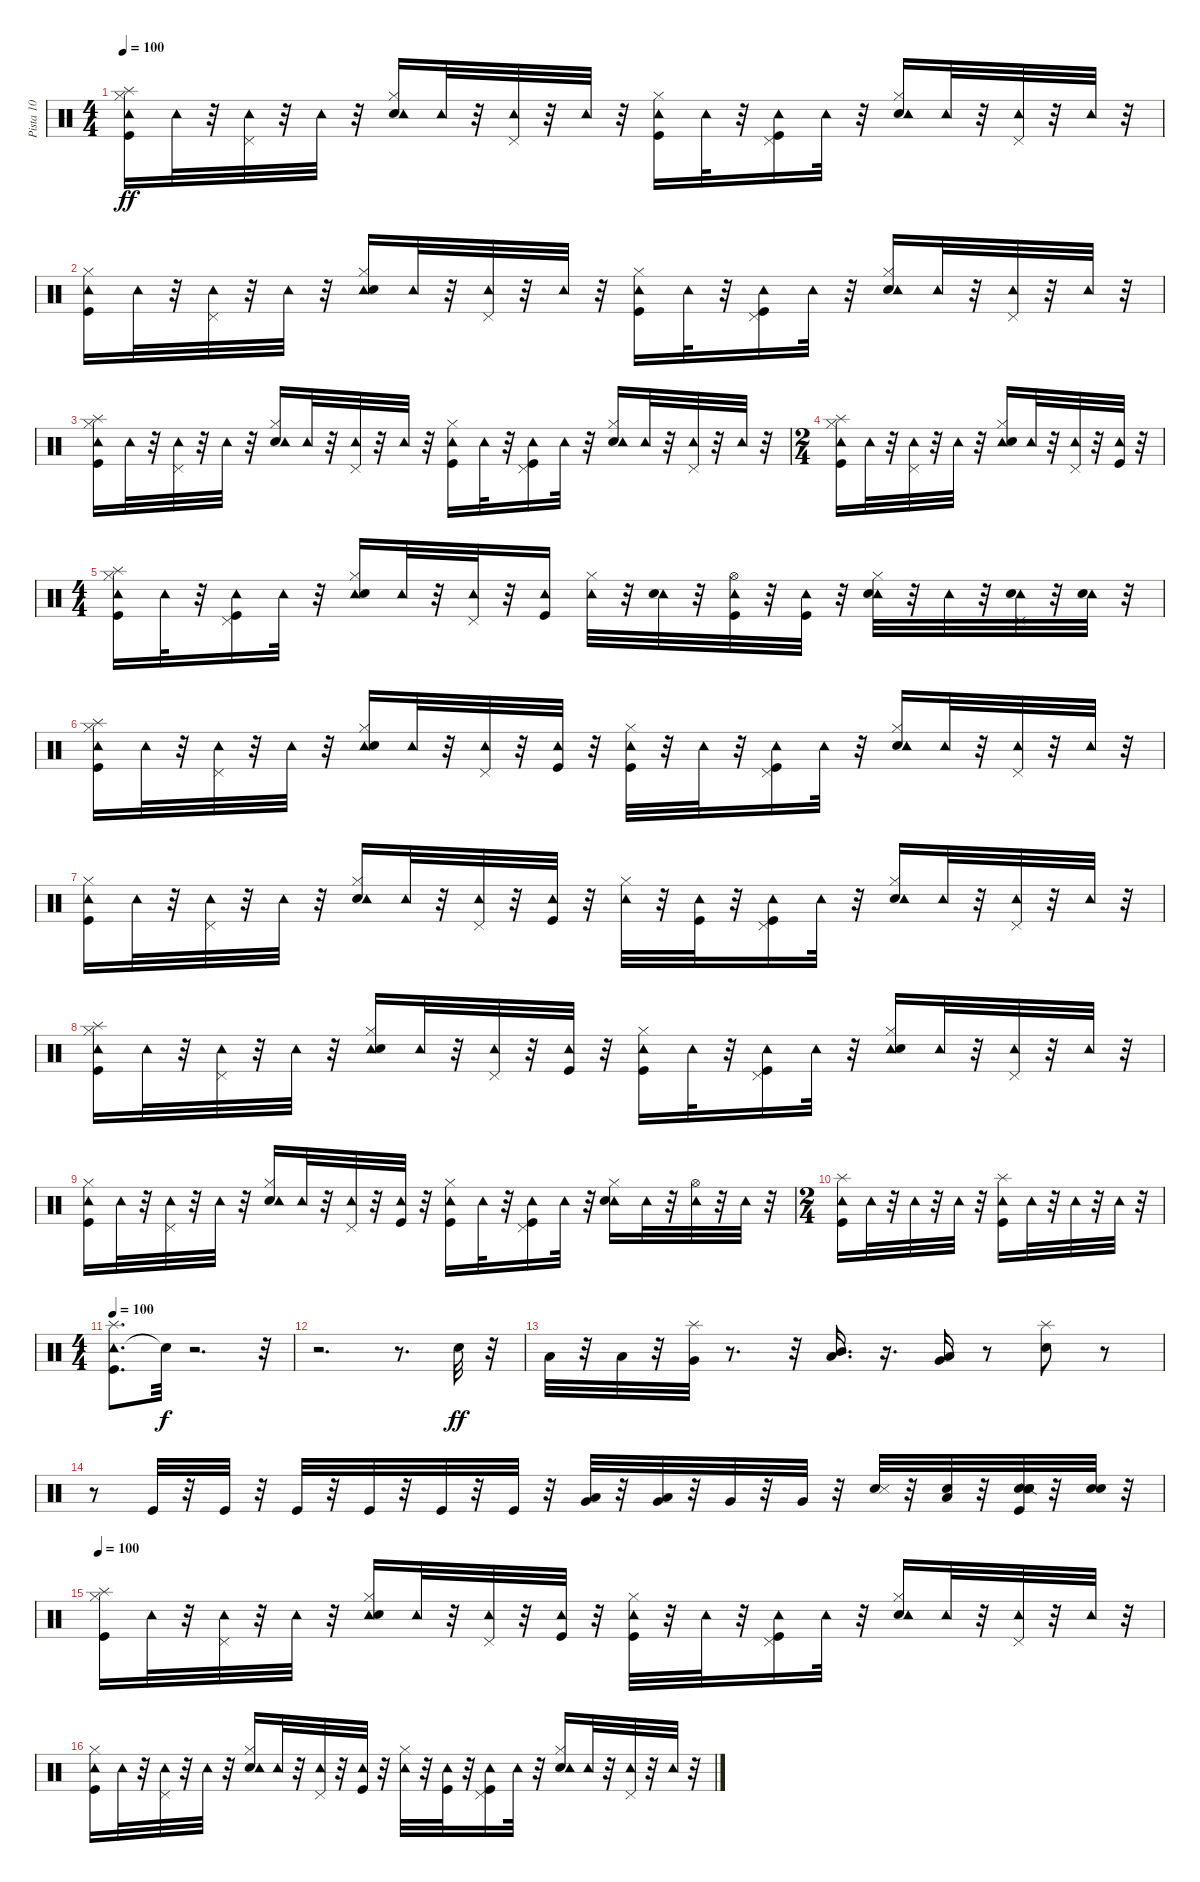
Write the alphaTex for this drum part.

\track ("Pista 10" "Pista 10") {instrument percussion}
\staff {score}
\articulation defaults
\ts (4 4)
\tempo 100
\clef neutral
\ks c
("Tambourine (hit)" "Kick (hit)" "Splash (hit)" "Hi-Hat (closed)").16{dy ff} "Tambourine (hit)".32 r.32 ("Tambourine (hit)" "Pedal Hi-Hat (hit)").32 r.32 "Tambourine (hit)".32 r.32 ("Snare (hit) 2" "Hi-Hat (closed)" "Tambourine (hit)").16 "Tambourine (hit)".32 r.32 ("Tambourine (hit)" "Pedal Hi-Hat (hit)").32 r.32 "Tambourine (hit)".32 r.32 ("Kick (hit)" "Hi-Hat (closed)" "Tambourine (hit)").16 "Tambourine (hit)".32 r.32 ("Tambourine (hit)" "Kick (hit)" "Pedal Hi-Hat (hit)").16 "Tambourine (hit)".32 r.32 ("Snare (hit) 2" "Hi-Hat (closed)" "Tambourine (hit)").16 "Tambourine (hit)".32 r.32 ("Pedal Hi-Hat (hit)" "Tambourine (hit)").32 r.32 "Tambourine (hit)".32 r.32 |
("Kick (hit)" "Hi-Hat (closed)" "Tambourine (hit)").16 "Tambourine (hit)".32 r.32 ("Tambourine (hit)" "Pedal Hi-Hat (hit)").32 r.32 "Tambourine (hit)".32 r.32 ("Tambourine (hit)" "Snare (hit) 2" "Hi-Hat (closed)").16 "Tambourine (hit)".32 r.32 ("Tambourine (hit)" "Pedal Hi-Hat (hit)").32 r.32 "Tambourine (hit)".32 r.32 ("Tambourine (hit)" "Kick (hit)" "Hi-Hat (closed)").16 "Tambourine (hit)".32 r.32 ("Tambourine (hit)" "Kick (hit)" "Pedal Hi-Hat (hit)").16 "Tambourine (hit)".32 r.32 ("Snare (hit) 2" "Hi-Hat (closed)" "Tambourine (hit)").16 "Tambourine (hit)".32 r.32 ("Pedal Hi-Hat (hit)" "Tambourine (hit)").32 r.32 "Tambourine (hit)".32 r.32 |
("Kick (hit)" "Hi-Hat (closed)" "Splash (hit)" "Tambourine (hit)").16 "Tambourine (hit)".32 r.32 ("Pedal Hi-Hat (hit)" "Tambourine (hit)").32 r.32 "Tambourine (hit)".32 r.32 ("Snare (hit) 2" "Hi-Hat (closed)" "Tambourine (hit)").16 "Tambourine (hit)".32 r.32 ("Tambourine (hit)" "Pedal Hi-Hat (hit)").32 r.32 "Tambourine (hit)".32 r.32 ("Tambourine (hit)" "Kick (hit)" "Hi-Hat (closed)").16 "Tambourine (hit)".32 r.32 ("Tambourine (hit)" "Kick (hit)" "Pedal Hi-Hat (hit)").16 "Tambourine (hit)".32 r.32 ("Snare (hit) 2" "Hi-Hat (closed)" "Tambourine (hit)").16 "Tambourine (hit)".32 r.32 ("Pedal Hi-Hat (hit)" "Tambourine (hit)").32 r.32 "Tambourine (hit)".32 r.32 |
\ts (2 4)
("Tambourine (hit)" "Kick (hit)" "Splash (hit)" "Hi-Hat (closed)").16 "Tambourine (hit)".32 r.32 ("Tambourine (hit)" "Pedal Hi-Hat (hit)").32 r.32 "Tambourine (hit)".32 r.32 ("Tambourine (hit)" "Snare (hit) 2" "Hi-Hat (closed)").16 "Tambourine (hit)".32 r.32 ("Tambourine (hit)" "Pedal Hi-Hat (hit)").32 r.32 ("Tambourine (hit)" "Kick (hit)").32 r.32 |
\ts (4 4)
("Tambourine (hit)" "Kick (hit)" "Splash (hit)" "Hi-Hat (closed)").16 "Tambourine (hit)".32 r.32 ("Tambourine (hit)" "Kick (hit)" "Pedal Hi-Hat (hit)").16 "Tambourine (hit)".32 r.32 ("Tambourine (hit)" "Snare (hit) 2" "Hi-Hat (closed)").16 "Tambourine (hit)".32 r.32 ("Tambourine (hit)" "Pedal Hi-Hat (hit)").32 r.32 ("Tambourine (hit)" "Kick (hit)").16 ("Tambourine (hit)" "Hi-Hat (closed)").32 r.32 ("Tambourine (hit)" "Snare (hit) 2").32 r.32 ("Tambourine (hit)" "Kick (hit)" "Hi-Hat (open)").32 r.32 ("Tambourine (hit)" "Kick (hit)").32 r.32 ("Tambourine (hit)" "Snare (hit) 2" "Hi-Hat (closed)").32 r.32 "Tambourine (hit)".32 r.32 ("Tambourine (hit)" "Snare (hit) 2" "Pedal Hi-Hat (hit)").32 r.32 ("Tambourine (hit)" "Snare (hit) 2").32 r.32 |
("Tambourine (hit)" "Kick (hit)" "Hi-Hat (closed)" "Splash (hit)").16 "Tambourine (hit)".32 r.32 ("Tambourine (hit)" "Pedal Hi-Hat (hit)").32 r.32 "Tambourine (hit)".32 r.32 ("Tambourine (hit)" "Snare (hit) 2" "Hi-Hat (closed)").16 "Tambourine (hit)".32 r.32 ("Tambourine (hit)" "Pedal Hi-Hat (hit)").32 r.32 ("Kick (hit)" "Tambourine (hit)").32 r.32 ("Tambourine (hit)" "Kick (hit)" "Hi-Hat (closed)").32 r.32 "Tambourine (hit)".32 r.32 ("Kick (hit)" "Pedal Hi-Hat (hit)" "Tambourine (hit)").16 "Tambourine (hit)".32 r.32 ("Snare (hit) 2" "Hi-Hat (closed)" "Tambourine (hit)").16 "Tambourine (hit)".32 r.32 ("Pedal Hi-Hat (hit)" "Tambourine (hit)").32 r.32 "Tambourine (hit)".32 r.32 |
("Kick (hit)" "Hi-Hat (closed)" "Tambourine (hit)").16 "Tambourine (hit)".32 r.32 ("Tambourine (hit)" "Pedal Hi-Hat (hit)").32 r.32 "Tambourine (hit)".32 r.32 ("Snare (hit) 2" "Hi-Hat (closed)" "Tambourine (hit)").16 "Tambourine (hit)".32 r.32 ("Pedal Hi-Hat (hit)" "Tambourine (hit)").32 r.32 ("Kick (hit)" "Tambourine (hit)").32 r.32 ("Hi-Hat (closed)" "Tambourine (hit)").32 r.32 ("Kick (hit)" "Tambourine (hit)").32 r.32 ("Kick (hit)" "Pedal Hi-Hat (hit)" "Tambourine (hit)").16 "Tambourine (hit)".32 r.32 ("Snare (hit) 2" "Hi-Hat (closed)" "Tambourine (hit)").16 "Tambourine (hit)".32 r.32 ("Pedal Hi-Hat (hit)" "Tambourine (hit)").32 r.32 "Tambourine (hit)".32 r.32 |
("Kick (hit)" "Splash (hit)" "Hi-Hat (closed)" "Tambourine (hit)").16 "Tambourine (hit)".32 r.32 ("Tambourine (hit)" "Pedal Hi-Hat (hit)").32 r.32 "Tambourine (hit)".32 r.32 ("Tambourine (hit)" "Snare (hit) 2" "Hi-Hat (closed)").16 "Tambourine (hit)".32 r.32 ("Tambourine (hit)" "Pedal Hi-Hat (hit)").32 r.32 ("Tambourine (hit)" "Kick (hit)").32 r.32 ("Tambourine (hit)" "Kick (hit)" "Hi-Hat (closed)").16 "Tambourine (hit)".32 r.32 ("Tambourine (hit)" "Kick (hit)" "Pedal Hi-Hat (hit)").16 "Tambourine (hit)".32 r.32 ("Tambourine (hit)" "Snare (hit) 2" "Hi-Hat (closed)").16 "Tambourine (hit)".32 r.32 ("Tambourine (hit)" "Pedal Hi-Hat (hit)").32 r.32 "Tambourine (hit)".32 r.32 |
("Tambourine (hit)" "Kick (hit)" "Hi-Hat (closed)").16 "Tambourine (hit)".32 r.32 ("Pedal Hi-Hat (hit)" "Tambourine (hit)").32 r.32 "Tambourine (hit)".32 r.32 ("Snare (hit) 2" "Hi-Hat (closed)" "Tambourine (hit)").16 "Tambourine (hit)".32 r.32 ("Tambourine (hit)" "Pedal Hi-Hat (hit)").32 r.32 ("Tambourine (hit)" "Kick (hit)").32 r.32 ("Tambourine (hit)" "Hi-Hat (closed)" "Kick (hit)").16 "Tambourine (hit)".32 r.32 ("Tambourine (hit)" "Pedal Hi-Hat (hit)" "Kick (hit)").16 "Tambourine (hit)".32 r.32 ("Tambourine (hit)" "Snare (hit) 2" "Hi-Hat (closed)").16 "Tambourine (hit)".32 r.32 ("Tambourine (hit)" "Hi-Hat (open)").32 r.32 "Tambourine (hit)".32 r.32 |
\ts (2 4)
("Tambourine (hit)" "Kick (hit)" "Splash (hit)").16 "Tambourine (hit)".32 r.32 "Tambourine (hit)".32 r.32 "Tambourine (hit)".32 r.32 ("Tambourine (hit)" "Kick (hit)" "Splash (hit)").16 "Tambourine (hit)".32 r.32 "Tambourine (hit)".32 r.32 "Tambourine (hit)".32 r.32 |
\ts (4 4)
\tempo 100
("Tambourine (hit)" "Splash (hit)" "Kick (hit)").8{d} "Snare (hit)"{t}.32{dy f} r.2{d} r.32 |
r.2{d} r.8{d} "Snare (hit) 2".32{dy ff} r.32 |
"Low Tom (hit)".32 r.32 "Low Tom (hit)".32 r.32 ("Very Low Tom (hit)" "Splash (hit)").32 r.8{d} r.32 ("Low Tom (hit)" "Mid Tom (hit)").16{d} r.16{d} ("Low Tom (hit)" "Very Low Tom (hit)").16 r.8 ("Splash (hit)" "Snare (hit) 2").8 r.8 |
r.8 "Kick (hit)".32 r.32 "Kick (hit)".32 r.32 "Kick (hit)".32 r.32 "Kick (hit)".32 r.32 "Kick (hit)".32 r.32 "Kick (hit)".32 r.32 ("Low Tom (hit)" "Very Low Tom (hit)").32 r.32 ("Very Low Tom (hit)" "Low Tom (hit)").32 r.32 "Very Low Tom (hit)".32 r.32 "Very Low Tom (hit)".32 r.32 ("Electric Snare (hit)" "Snare (side stick) 3").32 r.32 ("Low Floor Tom (hit)" "Electric Snare (hit)").32 r.32 ("Snare (hit) 2" "Electric Snare (hit)" "Snare (side stick) 2" "Metronome (bell)" "Kick (hit)").32 r.32 ("Electric Snare (hit)" "Snare (hit) 2").32 r.32 |
\tempo 100
("Hi-Hat (closed)" "Splash (hit)" "Kick (hit)").16 "Tambourine (hit)".32 r.32 ("Tambourine (hit)" "Pedal Hi-Hat (hit)").32 r.32 "Tambourine (hit)".32 r.32 ("Tambourine (hit)" "Hi-Hat (closed)" "Snare (hit) 2").16 "Tambourine (hit)".32 r.32 ("Tambourine (hit)" "Pedal Hi-Hat (hit)").32 r.32 ("Kick (hit)" "Tambourine (hit)").32 r.32 ("Tambourine (hit)" "Hi-Hat (closed)" "Kick (hit)").32 r.32 "Tambourine (hit)".32 r.32 ("Pedal Hi-Hat (hit)" "Kick (hit)" "Tambourine (hit)").16 "Tambourine (hit)".32 r.32 ("Hi-Hat (closed)" "Snare (hit) 2" "Tambourine (hit)").16 "Tambourine (hit)".32 r.32 ("Pedal Hi-Hat (hit)" "Tambourine (hit)").32 r.32 "Tambourine (hit)".32 r.32 |
("Hi-Hat (closed)" "Kick (hit)" "Tambourine (hit)").16 "Tambourine (hit)".32 r.32 ("Tambourine (hit)" "Pedal Hi-Hat (hit)").32 r.32 "Tambourine (hit)".32 r.32 ("Hi-Hat (closed)" "Snare (hit) 2" "Tambourine (hit)").16 "Tambourine (hit)".32 r.32 ("Pedal Hi-Hat (hit)" "Tambourine (hit)").32 r.32 ("Kick (hit)" "Tambourine (hit)").32 r.32 ("Hi-Hat (closed)" "Tambourine (hit)").32 r.32 ("Kick (hit)" "Tambourine (hit)").32 r.32 ("Pedal Hi-Hat (hit)" "Kick (hit)" "Tambourine (hit)").16 "Tambourine (hit)".32 r.32 ("Hi-Hat (closed)" "Snare (hit) 2" "Tambourine (hit)").16 "Tambourine (hit)".32 r.32 ("Pedal Hi-Hat (hit)" "Tambourine (hit)").32 r.32 "Tambourine (hit)".32 r.32
